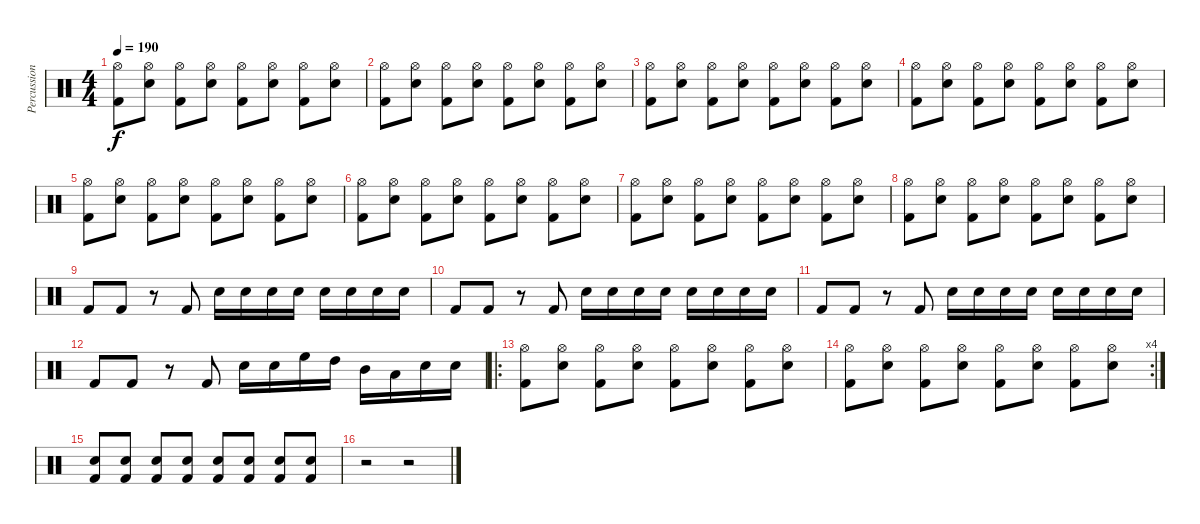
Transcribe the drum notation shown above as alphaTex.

\track ("Percussion" "Percussion") {instrument percussion}
\staff {score}
\articulation defaults
\ts (4 4)
\tempo 190
\clef neutral
\ks c
("Hi-Hat (open)" "Kick (hit) 2").8{dy f} ("Hi-Hat (open)" "Snare (hit) 2").8 ("Hi-Hat (open)" "Kick (hit) 2").8 ("Hi-Hat (open)" "Snare (hit) 2").8 ("Hi-Hat (open)" "Kick (hit) 2").8 ("Hi-Hat (open)" "Snare (hit) 2").8 ("Hi-Hat (open)" "Kick (hit) 2").8 ("Hi-Hat (open)" "Snare (hit) 2").8 |
("Hi-Hat (open)" "Kick (hit) 2").8 ("Hi-Hat (open)" "Snare (hit) 2").8 ("Hi-Hat (open)" "Kick (hit) 2").8 ("Hi-Hat (open)" "Snare (hit) 2").8 ("Hi-Hat (open)" "Kick (hit) 2").8 ("Hi-Hat (open)" "Snare (hit) 2").8 ("Hi-Hat (open)" "Kick (hit) 2").8 ("Hi-Hat (open)" "Snare (hit) 2").8 |
("Hi-Hat (open)" "Kick (hit) 2").8 ("Hi-Hat (open)" "Snare (hit) 2").8 ("Hi-Hat (open)" "Kick (hit) 2").8 ("Hi-Hat (open)" "Snare (hit) 2").8 ("Hi-Hat (open)" "Kick (hit) 2").8 ("Hi-Hat (open)" "Snare (hit) 2").8 ("Hi-Hat (open)" "Kick (hit) 2").8 ("Hi-Hat (open)" "Snare (hit) 2").8 |
("Hi-Hat (open)" "Kick (hit) 2").8 ("Hi-Hat (open)" "Snare (hit) 2").8 ("Hi-Hat (open)" "Kick (hit) 2").8 ("Hi-Hat (open)" "Snare (hit) 2").8 ("Hi-Hat (open)" "Kick (hit) 2").8 ("Hi-Hat (open)" "Snare (hit) 2").8 ("Hi-Hat (open)" "Kick (hit) 2").8 ("Hi-Hat (open)" "Snare (hit) 2").8 |
("Hi-Hat (open)" "Kick (hit) 2").8 ("Hi-Hat (open)" "Snare (hit) 2").8 ("Hi-Hat (open)" "Kick (hit) 2").8 ("Hi-Hat (open)" "Snare (hit) 2").8 ("Hi-Hat (open)" "Kick (hit) 2").8 ("Hi-Hat (open)" "Snare (hit) 2").8 ("Hi-Hat (open)" "Kick (hit) 2").8 ("Hi-Hat (open)" "Snare (hit) 2").8 |
("Hi-Hat (open)" "Kick (hit) 2").8 ("Hi-Hat (open)" "Snare (hit) 2").8 ("Hi-Hat (open)" "Kick (hit) 2").8 ("Hi-Hat (open)" "Snare (hit) 2").8 ("Hi-Hat (open)" "Kick (hit) 2").8 ("Hi-Hat (open)" "Snare (hit) 2").8 ("Hi-Hat (open)" "Kick (hit) 2").8 ("Hi-Hat (open)" "Snare (hit) 2").8 |
("Hi-Hat (open)" "Kick (hit) 2").8 ("Hi-Hat (open)" "Snare (hit) 2").8 ("Hi-Hat (open)" "Kick (hit) 2").8 ("Hi-Hat (open)" "Snare (hit) 2").8 ("Hi-Hat (open)" "Kick (hit) 2").8 ("Hi-Hat (open)" "Snare (hit) 2").8 ("Hi-Hat (open)" "Kick (hit) 2").8 ("Hi-Hat (open)" "Snare (hit) 2").8 |
("Hi-Hat (open)" "Kick (hit) 2").8 ("Hi-Hat (open)" "Snare (hit) 2").8 ("Hi-Hat (open)" "Kick (hit) 2").8 ("Hi-Hat (open)" "Snare (hit) 2").8 ("Hi-Hat (open)" "Kick (hit) 2").8 ("Hi-Hat (open)" "Snare (hit) 2").8 ("Hi-Hat (open)" "Kick (hit) 2").8 ("Hi-Hat (open)" "Snare (hit) 2").8 |
"Kick (hit) 2".8 "Kick (hit) 2".8 r.8 "Kick (hit) 2".8 "Snare (hit) 2".16 "Snare (hit) 2".16 "Snare (hit) 2".16 "Snare (hit) 2".16 "Snare (hit) 2".16 "Snare (hit) 2".16 "Snare (hit) 2".16 "Snare (hit) 2".16 |
"Kick (hit) 2".8 "Kick (hit) 2".8 r.8 "Kick (hit) 2".8 "Snare (hit) 2".16 "Snare (hit) 2".16 "Snare (hit) 2".16 "Snare (hit) 2".16 "Snare (hit) 2".16 "Snare (hit) 2".16 "Snare (hit) 2".16 "Snare (hit) 2".16 |
"Kick (hit) 2".8 "Kick (hit) 2".8 r.8 "Kick (hit) 2".8 "Snare (hit) 2".16 "Snare (hit) 2".16 "Snare (hit) 2".16 "Snare (hit) 2".16 "Snare (hit) 2".16 "Snare (hit) 2".16 "Snare (hit) 2".16 "Snare (hit) 2".16 |
"Kick (hit) 2".8 "Kick (hit) 2".8 r.8 "Kick (hit) 2".8 "Snare (hit) 2".16 "Snare (hit) 2".16 "High Floor Tom (hit)".16 "High Tom (hit)".16 "Mid Tom (hit)".16 "Low Tom (hit)".16 "Snare (hit) 2".16 "Snare (hit) 2".16 |
\ro
("Hi-Hat (open)" "Kick (hit) 2").8 ("Hi-Hat (open)" "Snare (hit) 2").8 ("Hi-Hat (open)" "Kick (hit) 2").8 ("Hi-Hat (open)" "Snare (hit) 2").8 ("Hi-Hat (open)" "Kick (hit) 2").8 ("Hi-Hat (open)" "Snare (hit) 2").8 ("Hi-Hat (open)" "Kick (hit) 2").8 ("Hi-Hat (open)" "Snare (hit) 2").8 |
\rc 4
("Hi-Hat (open)" "Kick (hit) 2").8 ("Hi-Hat (open)" "Snare (hit) 2").8 ("Hi-Hat (open)" "Kick (hit) 2").8 ("Hi-Hat (open)" "Snare (hit) 2").8 ("Hi-Hat (open)" "Kick (hit) 2").8 ("Hi-Hat (open)" "Snare (hit) 2").8 ("Hi-Hat (open)" "Kick (hit) 2").8 ("Hi-Hat (open)" "Snare (hit) 2").8 |
("Snare (hit) 2" "Kick (hit) 2").8 ("Snare (hit) 2" "Kick (hit) 2").8 ("Snare (hit) 2" "Kick (hit) 2").8 ("Snare (hit) 2" "Kick (hit) 2").8 ("Snare (hit) 2" "Kick (hit) 2").8 ("Snare (hit) 2" "Kick (hit) 2").8 ("Snare (hit) 2" "Kick (hit) 2").8 ("Snare (hit) 2" "Kick (hit) 2").8 |
r.2 r.2
